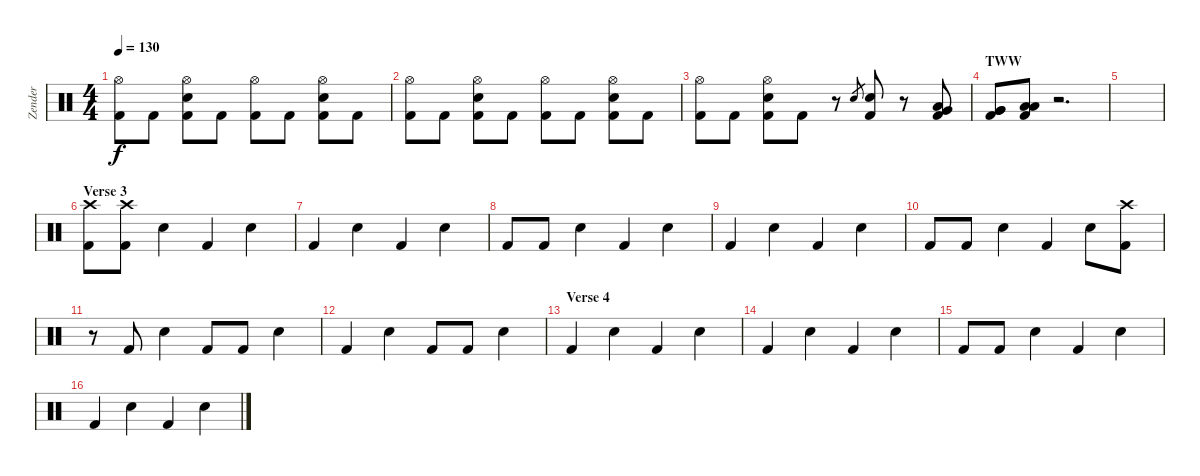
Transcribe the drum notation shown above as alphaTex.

\track ("Zender" "Zender") {instrument percussion}
\staff {score}
\articulation defaults
\ts (4 4)
\tempo 130
\clef neutral
\ks c
("Hi-Hat (open)" "Kick (hit) 2").8{dy f} "Kick (hit) 2".8 ("Electric Snare (hit)" "Hi-Hat (open)" "Kick (hit) 2").8 "Kick (hit) 2".8 ("Hi-Hat (open)" "Kick (hit) 2").8 "Kick (hit) 2".8 ("Electric Snare (hit)" "Hi-Hat (open)" "Kick (hit) 2").8 "Kick (hit) 2".8 |
("Hi-Hat (open)" "Kick (hit) 2").8 "Kick (hit) 2".8 ("Electric Snare (hit)" "Hi-Hat (open)" "Kick (hit) 2").8 "Kick (hit) 2".8 ("Hi-Hat (open)" "Kick (hit) 2").8 "Kick (hit) 2".8 ("Electric Snare (hit)" "Hi-Hat (open)" "Kick (hit) 2").8 "Kick (hit) 2".8 |
("Hi-Hat (open)" "Kick (hit) 2").8 "Kick (hit) 2".8 ("Electric Snare (hit)" "Hi-Hat (open)" "Kick (hit) 2").8 "Kick (hit) 2".8 r.8 "Electric Snare (hit)".8{gr} ("Electric Snare (hit)" "Kick (hit) 2").8 r.8 ("Low Tom (hit)" "Very Low Tom (hit)" "Kick (hit) 2").8 |
\section ("" "TWW")
("Very Low Tom (hit)" "Very Low Tom (hit)" "Kick (hit) 2").8 ("Low Floor Tom (hit)" "Low Floor Tom (hit)" "Kick (hit) 2").8 r.2{d} |
|
\section ("" "Verse 3")
("Crash high (hit)" "Kick (hit) 2").8 ("Crash high (hit)" "Kick (hit) 2").8 "Electric Snare (hit)".4 "Kick (hit) 2".4 "Electric Snare (hit)".4 |
"Kick (hit) 2".4 "Electric Snare (hit)".4 "Kick (hit) 2".4 "Electric Snare (hit)".4 |
"Kick (hit) 2".8 "Kick (hit) 2".8 "Electric Snare (hit)".4 "Kick (hit) 2".4 "Electric Snare (hit)".4 |
"Kick (hit) 2".4 "Electric Snare (hit)".4 "Kick (hit) 2".4 "Electric Snare (hit)".4 |
"Kick (hit) 2".8 "Kick (hit) 2".8 "Electric Snare (hit)".4 "Kick (hit) 2".4 "Electric Snare (hit)".8 ("Crash high (hit)" "Kick (hit) 2").8 |
r.8 "Kick (hit) 2".8 "Electric Snare (hit)".4 "Kick (hit) 2".8 "Kick (hit) 2".8 "Electric Snare (hit)".4 |
"Kick (hit) 2".4 "Electric Snare (hit)".4 "Kick (hit) 2".8 "Kick (hit) 2".8 "Electric Snare (hit)".4 |
\section ("" "Verse 4")
"Kick (hit) 2".4 "Electric Snare (hit)".4 "Kick (hit) 2".4 "Electric Snare (hit)".4 |
"Kick (hit) 2".4 "Electric Snare (hit)".4 "Kick (hit) 2".4 "Electric Snare (hit)".4 |
"Kick (hit) 2".8 "Kick (hit) 2".8 "Electric Snare (hit)".4 "Kick (hit) 2".4 "Electric Snare (hit)".4 |
"Kick (hit) 2".4 "Electric Snare (hit)".4 "Kick (hit) 2".4 "Electric Snare (hit)".4
